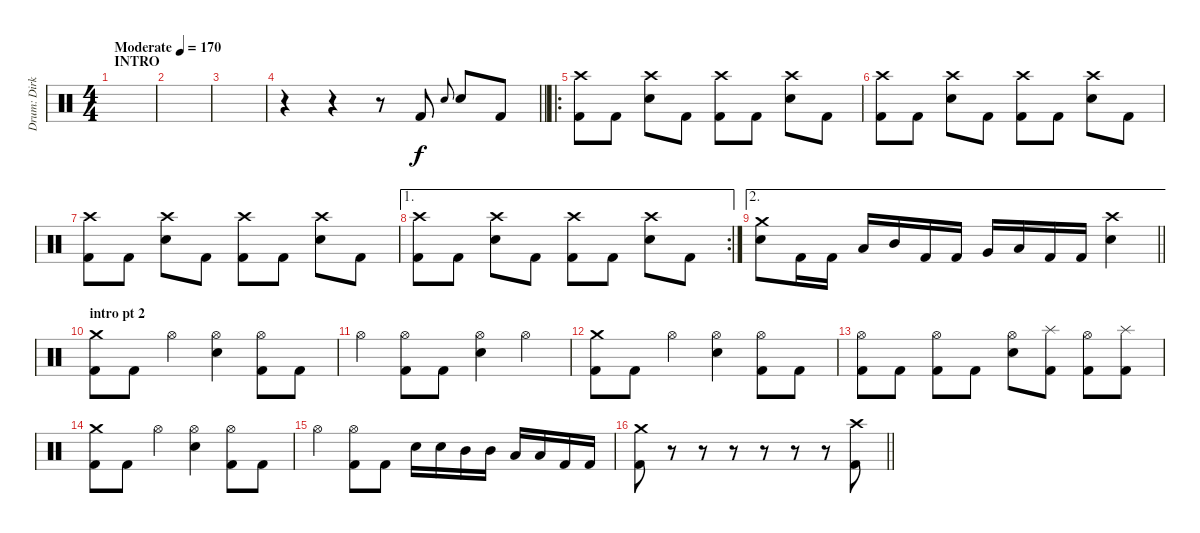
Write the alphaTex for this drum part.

\track ("Drum: Dirk" "Drum: Dirk") {instrument percussion}
\staff {score}
\articulation defaults
\ts (4 4)
\section ("" "INTRO")
\tempo (170 "Moderate")
\clef neutral
\ks c
|
|
|
\barLineRight lightlight
r.4 r.4 r.8 "Kick (hit) 2".8 "Electric Snare (hit)".8{gr onbeat} "Electric Snare (hit)".8 "Kick (hit) 2".8 |
\ro
("Crash high (hit)" "Kick (hit) 2").8 "Kick (hit) 2".8 ("Crash high (hit)" "Electric Snare (hit)").8 "Kick (hit) 2".8 ("Crash high (hit)" "Kick (hit) 2").8 "Kick (hit) 2".8 ("Crash high (hit)" "Electric Snare (hit)").8 "Kick (hit) 2".8 |
("Crash high (hit)" "Kick (hit) 2").8 "Kick (hit) 2".8 ("Crash high (hit)" "Electric Snare (hit)").8 "Kick (hit) 2".8 ("Crash high (hit)" "Kick (hit) 2").8 "Kick (hit) 2".8 ("Crash high (hit)" "Electric Snare (hit)").8 "Kick (hit) 2".8 |
("Crash high (hit)" "Kick (hit) 2").8 "Kick (hit) 2".8 ("Crash high (hit)" "Electric Snare (hit)").8 "Kick (hit) 2".8 ("Crash high (hit)" "Kick (hit) 2").8 "Kick (hit) 2".8 ("Crash high (hit)" "Electric Snare (hit)").8 "Kick (hit) 2".8 |
\ae 1
\rc 2
("Crash high (hit)" "Kick (hit) 2").8 "Kick (hit) 2".8 ("Crash high (hit)" "Electric Snare (hit)").8 "Kick (hit) 2".8 ("Crash high (hit)" "Kick (hit) 2").8 "Kick (hit) 2".8 ("Crash high (hit)" "Electric Snare (hit)").8 "Kick (hit) 2".8 |
\ae 2
\barLineRight lightlight
("Crash medium (hit)" "Electric Snare (hit)").8 "Kick (hit) 2".16 "Kick (hit) 2".16 "Low Tom (hit)".16 "Mid Tom (hit)".16 "Kick (hit) 2".16 "Kick (hit) 2".16 "Very Low Tom (hit)".16 "Low Tom (hit)".16 "Kick (hit) 2".16 "Kick (hit) 2".16 ("Crash high (hit)" "Electric Snare (hit)").4 |
\section ("" "intro pt 2")
("Crash medium (hit)" "Kick (hit) 2").8 "Kick (hit) 2".8 "Hi-Hat (open)".4 ("Hi-Hat (open)" "Electric Snare (hit)").4 ("Hi-Hat (open)" "Kick (hit) 2").8 "Kick (hit) 2".8 |
"Hi-Hat (open)".4 ("Hi-Hat (open)" "Kick (hit) 2").8 "Kick (hit) 2".8 ("Hi-Hat (open)" "Electric Snare (hit)").4 "Hi-Hat (open)".4 |
("Crash medium (hit)" "Kick (hit) 2").8 "Kick (hit) 2".8 "Hi-Hat (open)".4 ("Hi-Hat (open)" "Electric Snare (hit)").4 ("Hi-Hat (open)" "Kick (hit) 2").8 "Kick (hit) 2".8 |
("Hi-Hat (open)" "Kick (hit) 2").8 "Kick (hit) 2".8 ("Hi-Hat (open)" "Kick (hit) 2").8 "Kick (hit) 2".8 ("Hi-Hat (open)" "Electric Snare (hit)").8 ("Splash (hit)" "Kick (hit) 2").8 ("Hi-Hat (open)" "Kick (hit) 2").8 ("Splash (hit)" "Kick (hit) 2").8 |
("Crash medium (hit)" "Kick (hit) 2").8 "Kick (hit) 2".8 "Hi-Hat (open)".4 ("Hi-Hat (open)" "Electric Snare (hit)").4 ("Hi-Hat (open)" "Kick (hit) 2").8 "Kick (hit) 2".8 |
"Hi-Hat (open)".4 ("Hi-Hat (open)" "Kick (hit) 2").8 "Kick (hit) 2".8 "Electric Snare (hit)".16 "Electric Snare (hit)".16 "Mid Tom (hit)".16 "Mid Tom (hit)".16 "Low Tom (hit)".16 "Low Tom (hit)".16 "Kick (hit) 2".16 "Kick (hit) 2".16 |
\barLineRight lightlight
("Crash medium (hit)" "Kick (hit) 2").8 r.8{volume 0} r.8 r.8 r.8 r.8 r.8 ("Crash high (hit)" "Kick (hit) 2").8{volume 12}
